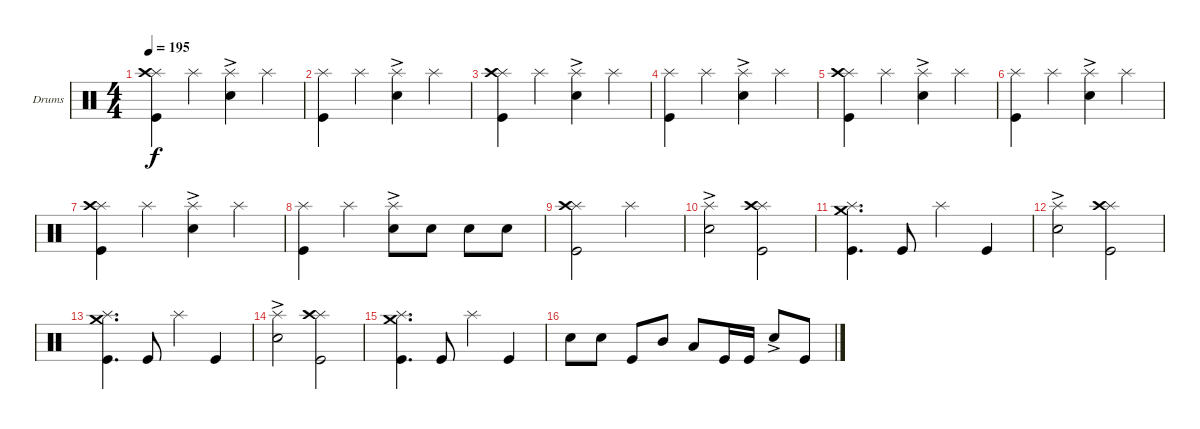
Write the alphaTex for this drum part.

\defaultSystemsLayout 4
\bracketExtendMode groupsimilarinstruments
\firstSystemTrackNameOrientation horizontal
\otherSystemsTrackNameOrientation horizontal
\track ("Drumkit" "Drums") {instrument percussion}
\staff {score}
\articulation defaults
\ts (4 4)
\tempo 195
\clef neutral
\ks c
("Kick (hit)" "Splash (hit)" "Crash high (hit)").4{dy f} "Splash (hit)".4 ("Snare (hit) 2"{ac} "Splash (hit)").4 "Splash (hit)".4 |
("Kick (hit)" "Splash (hit)").4 "Splash (hit)".4 ("Snare (hit) 2"{ac} "Splash (hit)").4 "Splash (hit)".4 |
("Kick (hit)" "Splash (hit)" "Crash high (hit)").4 "Splash (hit)".4 ("Snare (hit) 2"{ac} "Splash (hit)").4 "Splash (hit)".4 |
("Kick (hit)" "Splash (hit)").4 "Splash (hit)".4 ("Snare (hit) 2"{ac} "Splash (hit)").4 "Splash (hit)".4 |
("Kick (hit)" "Splash (hit)" "Crash high (hit)").4 "Splash (hit)".4 ("Snare (hit) 2"{ac} "Splash (hit)").4 "Splash (hit)".4 |
("Kick (hit)" "Splash (hit)").4 "Splash (hit)".4 ("Snare (hit) 2"{ac} "Splash (hit)").4 "Splash (hit)".4 |
("Kick (hit)" "Splash (hit)" "Crash high (hit)").4 "Splash (hit)".4 ("Snare (hit) 2"{ac} "Splash (hit)").4 "Splash (hit)".4 |
("Kick (hit)" "Splash (hit)").4 "Splash (hit)".4 ("Snare (hit) 2"{ac} "Splash (hit)").8 "Snare (hit) 2".8 "Snare (hit) 2".8 "Snare (hit) 2".8 |
("Kick (hit)" "Splash (hit)" "Crash high (hit)").2 "Splash (hit)".2 |
("Splash (hit)" "Snare (hit) 2"{ac}).2 ("Kick (hit)" "Splash (hit)" "Crash high (hit)").2 |
("Kick (hit)" "Splash (hit)" "Crash medium (hit)").4{d} "Kick (hit)".8 "Splash (hit)".4 "Kick (hit)".4 |
("Splash (hit)" "Snare (hit) 2"{ac}).2 ("Splash (hit)" "Kick (hit)" "Crash high (hit)").2 |
("Kick (hit)" "Splash (hit)" "Crash medium (hit)").4{d} "Kick (hit)".8 "Splash (hit)".4 "Kick (hit)".4 |
("Splash (hit)" "Snare (hit) 2"{ac}).2 ("Kick (hit)" "Splash (hit)" "Crash high (hit)").2 |
("Kick (hit)" "Splash (hit)" "Crash medium (hit)").4{d} "Kick (hit)".8 "Splash (hit)".4 "Kick (hit)".4 |
"Snare (hit) 2".8 "Snare (hit) 2".8 "Kick (hit)".8 "Mid Tom (hit)".8 "Low Tom (hit)".8 "Kick (hit)".16 "Kick (hit)".16 "Snare (hit) 2"{ac}.8 "Kick (hit)".8
